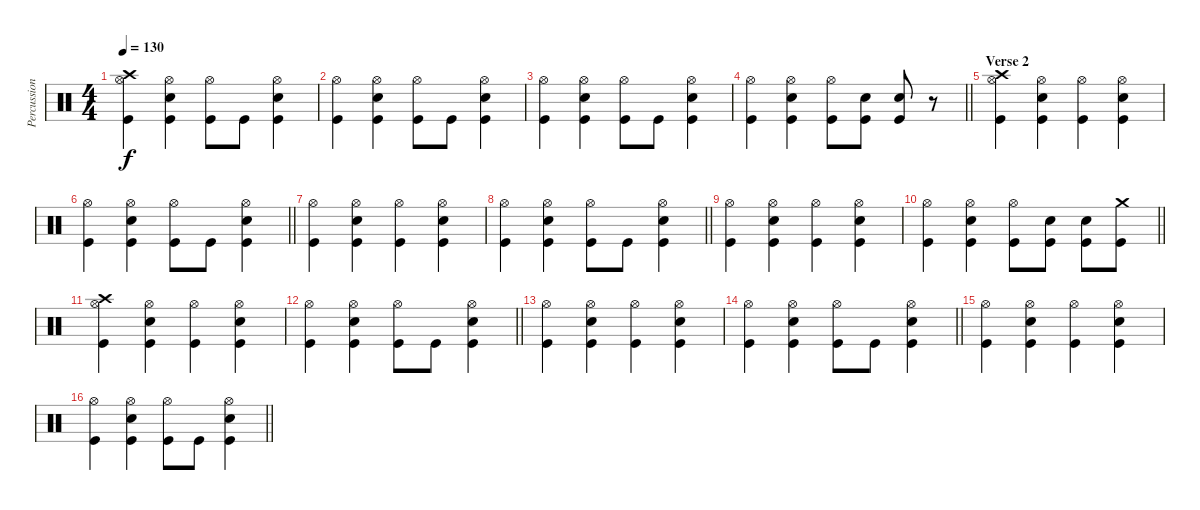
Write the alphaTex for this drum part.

\track ("Percussion" "Percussion") {instrument percussion}
\staff {score}
\articulation defaults
\ts (4 4)
\tempo 130
\clef neutral
\ks c
("Crash high (hit)" "Hi-Hat (open)" "Kick (hit)").4{dy f} ("Hi-Hat (open)" "Snare (hit) 2" "Kick (hit)").4 ("Hi-Hat (open)" "Kick (hit)").8 "Kick (hit)".8 ("Hi-Hat (open)" "Snare (hit) 2" "Kick (hit)").4 |
("Hi-Hat (open)" "Kick (hit)").4 ("Hi-Hat (open)" "Snare (hit) 2" "Kick (hit)").4 ("Hi-Hat (open)" "Kick (hit)").8 "Kick (hit)".8 ("Hi-Hat (open)" "Snare (hit) 2" "Kick (hit)").4 |
("Hi-Hat (open)" "Kick (hit)").4 ("Hi-Hat (open)" "Snare (hit) 2" "Kick (hit)").4 ("Hi-Hat (open)" "Kick (hit)").8 "Kick (hit)".8 ("Hi-Hat (open)" "Snare (hit) 2" "Kick (hit)").4 |
\barLineRight lightlight
("Hi-Hat (open)" "Kick (hit)").4 ("Hi-Hat (open)" "Snare (hit) 2" "Kick (hit)").4 ("Hi-Hat (open)" "Kick (hit)").8 ("Snare (hit) 2" "Kick (hit)").8 ("Snare (hit) 2" "Kick (hit)").8 r.8 |
\section ("" "Verse 2")
("Crash high (hit)" "Hi-Hat (open)" "Kick (hit)").4 ("Hi-Hat (open)" "Snare (hit) 2" "Kick (hit)").4 ("Hi-Hat (open)" "Kick (hit)").4 ("Hi-Hat (open)" "Snare (hit) 2" "Kick (hit)").4 |
\barLineRight lightlight
("Hi-Hat (open)" "Kick (hit)").4 ("Hi-Hat (open)" "Snare (hit) 2" "Kick (hit)").4 ("Hi-Hat (open)" "Kick (hit)").8 "Kick (hit)".8 ("Hi-Hat (open)" "Snare (hit) 2" "Kick (hit)").4 |
("Hi-Hat (open)" "Kick (hit)").4 ("Hi-Hat (open)" "Snare (hit) 2" "Kick (hit)").4 ("Hi-Hat (open)" "Kick (hit)").4 ("Hi-Hat (open)" "Snare (hit) 2" "Kick (hit)").4 |
\barLineRight lightlight
("Hi-Hat (open)" "Kick (hit)").4 ("Hi-Hat (open)" "Snare (hit) 2" "Kick (hit)").4 ("Hi-Hat (open)" "Kick (hit)").8 "Kick (hit)".8 ("Hi-Hat (open)" "Snare (hit) 2" "Kick (hit)").4 |
\section ("" "")
("Hi-Hat (open)" "Kick (hit)").4 ("Hi-Hat (open)" "Snare (hit) 2" "Kick (hit)").4 ("Hi-Hat (open)" "Kick (hit)").4 ("Hi-Hat (open)" "Snare (hit) 2" "Kick (hit)").4 |
\barLineRight lightlight
("Hi-Hat (open)" "Kick (hit)").4 ("Hi-Hat (open)" "Snare (hit) 2" "Kick (hit)").4 ("Hi-Hat (open)" "Kick (hit)").8 ("Snare (hit) 2" "Kick (hit)").8 ("Snare (hit) 2" "Kick (hit)").8 ("Crash medium (hit)" "Kick (hit)").8 |
("Crash high (hit)" "Hi-Hat (open)" "Kick (hit)").4 ("Hi-Hat (open)" "Snare (hit) 2" "Kick (hit)").4 ("Hi-Hat (open)" "Kick (hit)").4 ("Hi-Hat (open)" "Snare (hit) 2" "Kick (hit)").4 |
\barLineRight lightlight
("Hi-Hat (open)" "Kick (hit)").4 ("Hi-Hat (open)" "Snare (hit) 2" "Kick (hit)").4 ("Hi-Hat (open)" "Kick (hit)").8 "Kick (hit)".8 ("Hi-Hat (open)" "Snare (hit) 2" "Kick (hit)").4 |
\section ("" "")
("Hi-Hat (open)" "Kick (hit)").4 ("Hi-Hat (open)" "Snare (hit) 2" "Kick (hit)").4 ("Hi-Hat (open)" "Kick (hit)").4 ("Hi-Hat (open)" "Snare (hit) 2" "Kick (hit)").4 |
\barLineRight lightlight
("Hi-Hat (open)" "Kick (hit)").4 ("Hi-Hat (open)" "Snare (hit) 2" "Kick (hit)").4 ("Hi-Hat (open)" "Kick (hit)").8 "Kick (hit)".8 ("Hi-Hat (open)" "Snare (hit) 2" "Kick (hit)").4 |
("Hi-Hat (open)" "Kick (hit)").4 ("Hi-Hat (open)" "Snare (hit) 2" "Kick (hit)").4 ("Hi-Hat (open)" "Kick (hit)").4 ("Hi-Hat (open)" "Snare (hit) 2" "Kick (hit)").4 |
\barLineRight lightlight
("Hi-Hat (open)" "Kick (hit)").4 ("Hi-Hat (open)" "Snare (hit) 2" "Kick (hit)").4 ("Hi-Hat (open)" "Kick (hit)").8 "Kick (hit)".8 ("Hi-Hat (open)" "Snare (hit) 2" "Kick (hit)").4
